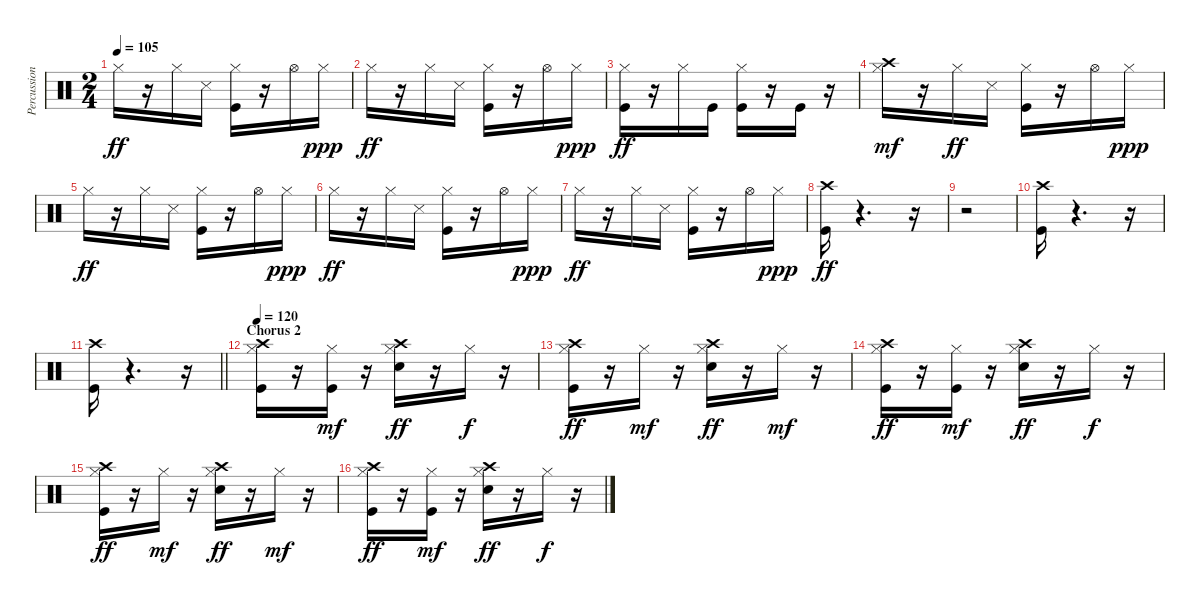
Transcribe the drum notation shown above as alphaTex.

\track ("Percussion" "Percussion") {instrument percussion}
\staff {score}
\articulation defaults
\ts (2 4)
\tempo 105
\clef neutral
\ks c "Hi-Hat (closed)".16{dy ff}
r.16 "Hi-Hat (closed)".16 "Snare (side stick) 3".16 ("Kick (hit)" "Hi-Hat (closed)").16 r.16 "Hi-Hat (open)".16 "Hi-Hat (closed)".16{dy ppp} |
"Hi-Hat (closed)".16{dy ff} r.16 "Hi-Hat (closed)".16 "Snare (side stick) 3".16 ("Kick (hit)" "Hi-Hat (closed)").16 r.16 "Hi-Hat (open)".16 "Hi-Hat (closed)".16{dy ppp} |
("Kick (hit)" "Hi-Hat (closed)").16{dy ff} r.16 "Hi-Hat (closed)".16 "Kick (hit)".16 ("Kick (hit)" "Hi-Hat (closed)").16 r.16 "Kick (hit)".16 r.16 |
("Hi-Hat (closed)" "Crash high (hit)").16{dy mf} r.16 "Hi-Hat (closed)".16{dy ff} "Snare (side stick) 3".16 ("Kick (hit)" "Hi-Hat (closed)").16 r.16 "Hi-Hat (open)".16 "Hi-Hat (closed)".16{dy ppp} |
"Hi-Hat (closed)".16{dy ff} r.16 "Hi-Hat (closed)".16 "Snare (side stick) 3".16 ("Kick (hit)" "Hi-Hat (closed)").16 r.16 "Hi-Hat (open)".16 "Hi-Hat (closed)".16{dy ppp} |
"Hi-Hat (closed)".16{dy ff} r.16 "Hi-Hat (closed)".16 "Snare (side stick) 3".16 ("Kick (hit)" "Hi-Hat (closed)").16 r.16 "Hi-Hat (open)".16 "Hi-Hat (closed)".16{dy ppp} |
"Hi-Hat (closed)".16{dy ff} r.16 "Hi-Hat (closed)".16 "Snare (side stick) 3".16 ("Kick (hit)" "Hi-Hat (closed)").16 r.16 "Hi-Hat (open)".16 "Hi-Hat (closed)".16{dy ppp} |
("Kick (hit)" "Crash high (hit)").16{dy ff} r.4{d} r.16 |
r.2 |
("Kick (hit)" "Crash high (hit)").16 r.4{d} r.16 |
\barLineRight lightlight
("Kick (hit)" "Crash high (hit)").16 r.4{d} r.16 |
\section ("" "Chorus 2")
\tempo 120
("Kick (hit)" "Hi-Hat (closed)" "Crash high (hit)").16 r.16 ("Kick (hit)" "Hi-Hat (closed)").16{dy mf} r.16 ("Snare (hit) 2" "Hi-Hat (closed)" "Crash high (hit)").16{dy ff} r.16 "Hi-Hat (closed)".16{dy f} r.16 |
("Kick (hit)" "Hi-Hat (closed)" "Crash high (hit)").16{dy ff} r.16 "Hi-Hat (closed)".16{dy mf} r.16 ("Snare (hit) 2" "Hi-Hat (closed)" "Crash high (hit)").16{dy ff} r.16 "Hi-Hat (closed)".16{dy mf} r.16 |
("Kick (hit)" "Hi-Hat (closed)" "Crash high (hit)").16{dy ff} r.16 ("Kick (hit)" "Hi-Hat (closed)").16{dy mf} r.16 ("Snare (hit) 2" "Hi-Hat (closed)" "Crash high (hit)").16{dy ff} r.16 "Hi-Hat (closed)".16{dy f} r.16 |
("Kick (hit)" "Hi-Hat (closed)" "Crash high (hit)").16{dy ff} r.16 "Hi-Hat (closed)".16{dy mf} r.16 ("Snare (hit) 2" "Hi-Hat (closed)" "Crash high (hit)").16{dy ff} r.16 "Hi-Hat (closed)".16{dy mf} r.16 |
("Kick (hit)" "Hi-Hat (closed)" "Crash high (hit)").16{dy ff} r.16 ("Kick (hit)" "Hi-Hat (closed)").16{dy mf} r.16 ("Snare (hit) 2" "Hi-Hat (closed)" "Crash high (hit)").16{dy ff} r.16 "Hi-Hat (closed)".16{dy f} r.16
